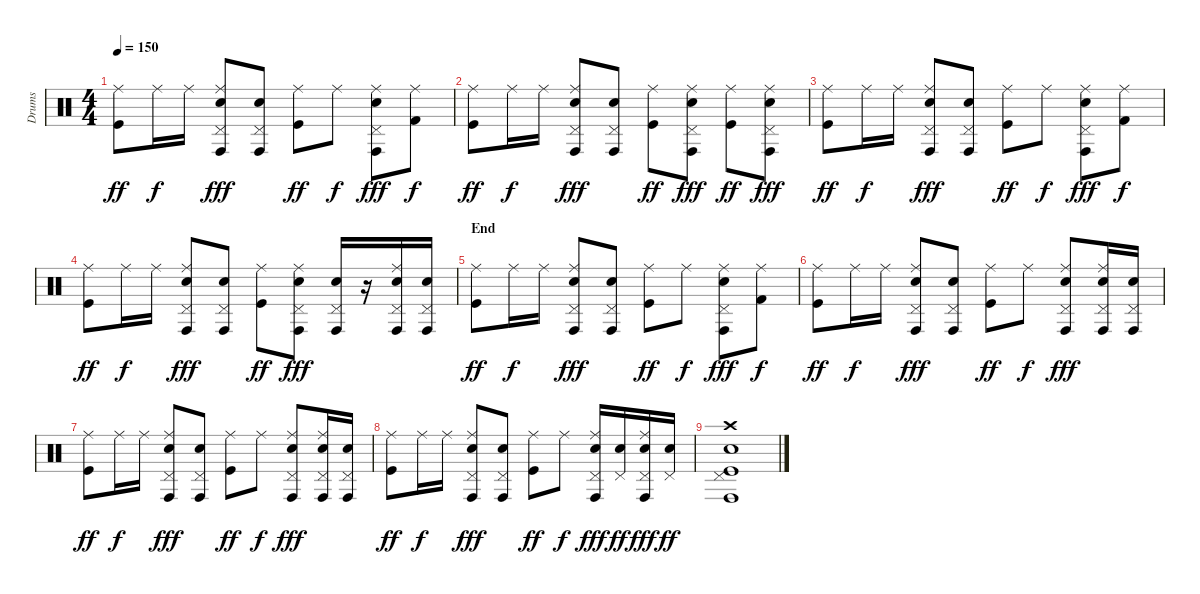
\track ("Drums" "Drums") {instrument percussion}
\staff {score}
\articulation defaults
\ts (4 4)
\tempo 150
\clef neutral
\ks c
("Ride (middle)" "Kick (hit)").8{dy ff} "Ride (middle)".16{dy f} "Ride (middle)".16 ("Ride (middle)" "Pedal Hi-Hat (hit)" "Conga high (hit)" "Electric Snare (hit)").8{dy fff} ("Pedal Hi-Hat (hit)" "Conga high (hit)" "Electric Snare (hit)").8 ("Ride (middle)" "Kick (hit)").8{dy ff} "Ride (middle)".8{dy f} ("Ride (middle)" "Pedal Hi-Hat (hit)" "Conga high (hit)" "Electric Snare (hit)").8{dy fff} ("Ride (middle)" "Kick (hit) 2").8{dy f} |
("Ride (middle)" "Kick (hit)").8{dy ff} "Ride (middle)".16{dy f} "Ride (middle)".16 ("Ride (middle)" "Pedal Hi-Hat (hit)" "Conga high (hit)" "Electric Snare (hit)").8{dy fff} ("Pedal Hi-Hat (hit)" "Conga high (hit)" "Electric Snare (hit)").8 ("Ride (middle)" "Kick (hit)").8{dy ff} ("Ride (middle)" "Pedal Hi-Hat (hit)" "Conga high (hit)" "Electric Snare (hit)").8{dy fff} ("Ride (middle)" "Kick (hit)").8{dy ff} ("Ride (middle)" "Pedal Hi-Hat (hit)" "Conga high (hit)" "Electric Snare (hit)").8{dy fff} |
("Ride (middle)" "Kick (hit)").8{dy ff} "Ride (middle)".16{dy f} "Ride (middle)".16 ("Ride (middle)" "Pedal Hi-Hat (hit)" "Conga high (hit)" "Electric Snare (hit)").8{dy fff} ("Pedal Hi-Hat (hit)" "Conga high (hit)" "Electric Snare (hit)").8 ("Ride (middle)" "Kick (hit)").8{dy ff} "Ride (middle)".8{dy f} ("Ride (middle)" "Pedal Hi-Hat (hit)" "Conga high (hit)" "Electric Snare (hit)").8{dy fff} ("Ride (middle)" "Kick (hit) 2").8{dy f} |
("Ride (middle)" "Kick (hit)").8{dy ff} "Ride (middle)".16{dy f} "Ride (middle)".16 ("Ride (middle)" "Pedal Hi-Hat (hit)" "Conga high (hit)" "Electric Snare (hit)").8{dy fff} ("Pedal Hi-Hat (hit)" "Conga high (hit)" "Electric Snare (hit)").8 ("Ride (middle)" "Kick (hit)").8{dy ff} ("Ride (middle)" "Pedal Hi-Hat (hit)" "Conga high (hit)" "Electric Snare (hit)").8{dy fff} ("Pedal Hi-Hat (hit)" "Conga high (hit)" "Electric Snare (hit)").16 r.16 ("Ride (middle)" "Pedal Hi-Hat (hit)" "Conga high (hit)" "Electric Snare (hit)").16 ("Pedal Hi-Hat (hit)" "Conga high (hit)" "Electric Snare (hit)").16 |
\section ("" "End")
("Ride (middle)" "Kick (hit)").8{dy ff} "Ride (middle)".16{dy f} "Ride (middle)".16 ("Ride (middle)" "Pedal Hi-Hat (hit)" "Conga high (hit)" "Electric Snare (hit)").8{dy fff} ("Pedal Hi-Hat (hit)" "Conga high (hit)" "Electric Snare (hit)").8 ("Ride (middle)" "Kick (hit)").8{dy ff} "Ride (middle)".8{dy f} ("Ride (middle)" "Pedal Hi-Hat (hit)" "Conga high (hit)" "Electric Snare (hit)").8{dy fff} ("Ride (middle)" "Kick (hit) 2").8{dy f} |
("Ride (middle)" "Kick (hit)").8{dy ff} "Ride (middle)".16{dy f} "Ride (middle)".16 ("Ride (middle)" "Pedal Hi-Hat (hit)" "Conga high (hit)" "Electric Snare (hit)").8{dy fff} ("Pedal Hi-Hat (hit)" "Conga high (hit)" "Electric Snare (hit)").8 ("Ride (middle)" "Kick (hit)").8{dy ff} "Ride (middle)".8{dy f} ("Ride (middle)" "Pedal Hi-Hat (hit)" "Conga high (hit)" "Electric Snare (hit)").8{dy fff} ("Ride (middle)" "Pedal Hi-Hat (hit)" "Conga high (hit)" "Electric Snare (hit)").16 ("Pedal Hi-Hat (hit)" "Conga high (hit)" "Electric Snare (hit)").16 |
("Ride (middle)" "Kick (hit)").8{dy ff} "Ride (middle)".16{dy f} "Ride (middle)".16 ("Ride (middle)" "Pedal Hi-Hat (hit)" "Conga high (hit)" "Electric Snare (hit)").8{dy fff} ("Pedal Hi-Hat (hit)" "Conga high (hit)" "Electric Snare (hit)").8 ("Ride (middle)" "Kick (hit)").8{dy ff} "Ride (middle)".8{dy f} ("Ride (middle)" "Pedal Hi-Hat (hit)" "Conga high (hit)" "Electric Snare (hit)").8{dy fff} ("Ride (middle)" "Pedal Hi-Hat (hit)" "Conga high (hit)" "Electric Snare (hit)").16 ("Pedal Hi-Hat (hit)" "Conga high (hit)" "Electric Snare (hit)").16 |
("Ride (middle)" "Kick (hit)").8{dy ff} "Ride (middle)".16{dy f} "Ride (middle)".16 ("Ride (middle)" "Pedal Hi-Hat (hit)" "Conga high (hit)" "Electric Snare (hit)").8{dy fff} ("Pedal Hi-Hat (hit)" "Conga high (hit)" "Electric Snare (hit)").8 ("Ride (middle)" "Kick (hit)").8{dy ff} "Ride (middle)".8{dy f} ("Ride (middle)" "Pedal Hi-Hat (hit)" "Conga high (hit)" "Electric Snare (hit)").16{dy fff} ("Pedal Hi-Hat (hit)" "Electric Snare (hit)").16{dy ff} ("Ride (middle)" "Pedal Hi-Hat (hit)" "Conga high (hit)" "Electric Snare (hit)").16{dy fff} ("Pedal Hi-Hat (hit)" "Electric Snare (hit)").16{dy ff} |
("Crash high (hit)" "Pedal Hi-Hat (hit)" "Conga high (hit)" "Electric Snare (hit)" "Kick (hit)").1
